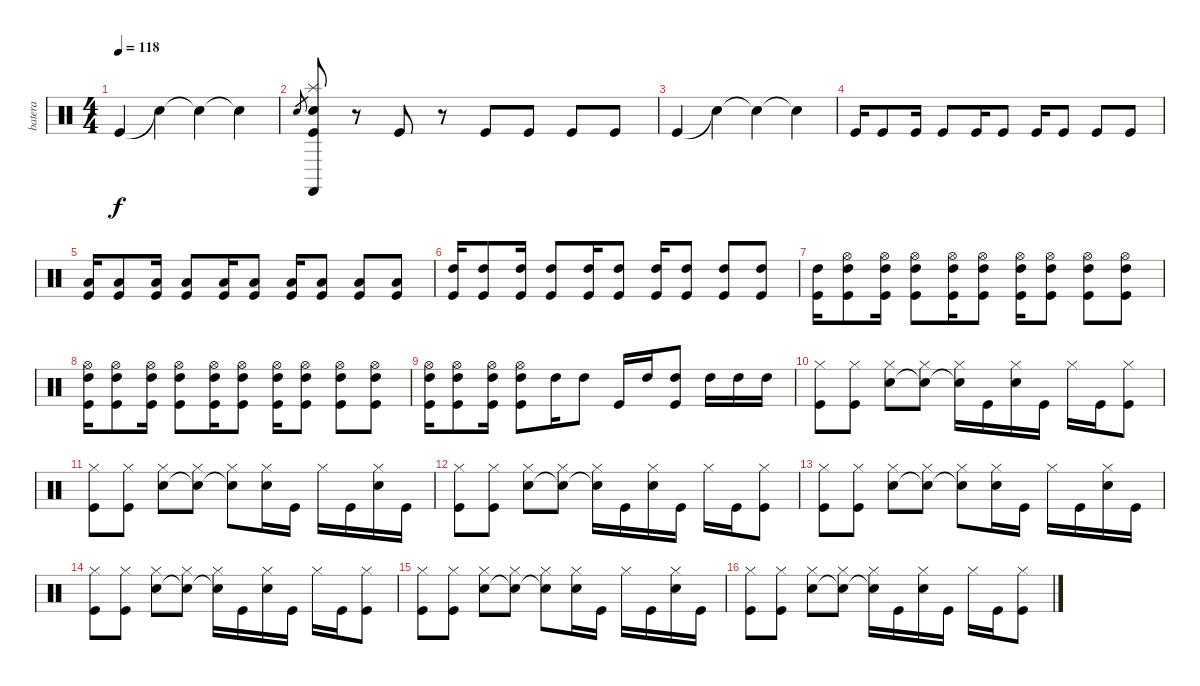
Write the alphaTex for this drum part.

\track ("batera" "batera") {instrument percussion}
\staff {score}
\articulation defaults
\ts (4 4)
\tempo 118
\clef neutral
\ks c "Kick (hit)".4{dy f} "Snare (hit)"{t}.4 "Snare (hit)"{t}.4 "Snare (hit)"{t}.4
|
"Snare (hit) 2".8{gr} ("Splash (hit)" "Castanets (hit)" "Snare (hit) 2" "Kick (hit)").8 r.8 "Kick (hit)".8 r.8 "Kick (hit)".8 "Kick (hit)".8 "Kick (hit)".8 "Kick (hit)".8 |
"Kick (hit)".4 "Snare (hit)"{t}.4 "Snare (hit)"{t}.4 "Snare (hit)"{t}.4 |
"Kick (hit)".16 "Kick (hit)".8 "Kick (hit)".16 "Kick (hit)".8 "Kick (hit)".16 "Kick (hit)".8 "Kick (hit)".16 "Kick (hit)".8 "Kick (hit)".8 "Kick (hit)".8 |
("Low Tom (hit)" "Kick (hit)").16 ("Low Tom (hit)" "Kick (hit)").8 ("Low Tom (hit)" "Kick (hit)").16 ("Low Tom (hit)" "Kick (hit)").8 ("Low Tom (hit)" "Kick (hit)").16 ("Low Tom (hit)" "Kick (hit)").8 ("Low Tom (hit)" "Kick (hit)").16 ("Low Tom (hit)" "Kick (hit)").8 ("Low Tom (hit)" "Kick (hit)").8 ("Low Tom (hit)" "Kick (hit)").8 |
("High Tom (hit)" "Kick (hit)").16 ("High Tom (hit)" "Kick (hit)").8 ("High Tom (hit)" "Kick (hit)").16 ("High Tom (hit)" "Kick (hit)").8 ("High Tom (hit)" "Kick (hit)").16 ("High Tom (hit)" "Kick (hit)").8 ("High Tom (hit)" "Kick (hit)").16 ("High Tom (hit)" "Kick (hit)").8 ("High Tom (hit)" "Kick (hit)").8 ("High Tom (hit)" "Kick (hit)").8 |
("High Tom (hit)" "Kick (hit)").16 ("Hi-Hat (open)" "High Tom (hit)" "Kick (hit)").8 ("Hi-Hat (open)" "High Tom (hit)" "Kick (hit)").16 ("Hi-Hat (open)" "High Tom (hit)" "Kick (hit)").8 ("Hi-Hat (open)" "High Tom (hit)" "Kick (hit)").16 ("Hi-Hat (open)" "High Tom (hit)" "Kick (hit)").8 ("Hi-Hat (open)" "High Tom (hit)" "Kick (hit)").16 ("Hi-Hat (open)" "High Tom (hit)" "Kick (hit)").8 ("Hi-Hat (open)" "High Tom (hit)" "Kick (hit)").8 ("Hi-Hat (open)" "High Tom (hit)" "Kick (hit)").8 |
("Hi-Hat (open)" "High Tom (hit)" "Kick (hit)").16 ("Hi-Hat (open)" "High Tom (hit)" "Kick (hit)").8 ("Hi-Hat (open)" "High Tom (hit)" "Kick (hit)").16 ("Hi-Hat (open)" "High Tom (hit)" "Kick (hit)").8 ("Hi-Hat (open)" "High Tom (hit)" "Kick (hit)").16 ("Hi-Hat (open)" "High Tom (hit)" "Kick (hit)").8 ("Hi-Hat (open)" "High Tom (hit)" "Kick (hit)").16 ("Hi-Hat (open)" "High Tom (hit)" "Kick (hit)").8 ("Hi-Hat (open)" "High Tom (hit)" "Kick (hit)").8 ("Hi-Hat (open)" "High Tom (hit)" "Kick (hit)").8 |
("Hi-Hat (open)" "High Tom (hit)" "Kick (hit)").16 ("Hi-Hat (open)" "High Tom (hit)" "Kick (hit)").8 ("Hi-Hat (open)" "High Tom (hit)" "Kick (hit)").16 ("Hi-Hat (open)" "High Tom (hit)" "Kick (hit)").8 "High Tom (hit)".16 "High Tom (hit)".8 "Kick (hit)".16 "High Tom (hit)".16 ("High Tom (hit)" "Kick (hit)").8 "High Tom (hit)".16 "High Tom (hit)".16 "High Tom (hit)".16 |
("Hi-Hat (closed)" "Kick (hit)").8 ("Hi-Hat (closed)" "Kick (hit)").8 ("Hi-Hat (closed)" "Snare (hit) 2").8 ("Hi-Hat (closed)" "Snare (hit)"{t}).8 ("Hi-Hat (closed)" "Snare (hit)"{t}).16 "Kick (hit)".16 ("Hi-Hat (closed)" "Snare (hit) 2").16 "Kick (hit)".16 "Hi-Hat (closed)".16 "Kick (hit)".16 ("Hi-Hat (closed)" "Kick (hit)").8 |
("Hi-Hat (closed)" "Kick (hit)").8 ("Hi-Hat (closed)" "Kick (hit)").8 ("Hi-Hat (closed)" "Snare (hit) 2").8 ("Hi-Hat (closed)" "Snare (hit)"{t}).8 ("Hi-Hat (closed)" "Snare (hit)"{t}).8 ("Hi-Hat (closed)" "Snare (hit) 2").16 "Kick (hit)".16 "Hi-Hat (closed)".16 "Kick (hit)".16 ("Hi-Hat (closed)" "Snare (hit) 2").16 "Kick (hit)".16 |
("Hi-Hat (closed)" "Kick (hit)").8 ("Hi-Hat (closed)" "Kick (hit)").8 ("Hi-Hat (closed)" "Snare (hit) 2").8 ("Hi-Hat (closed)" "Snare (hit)"{t}).8 ("Hi-Hat (closed)" "Snare (hit)"{t}).16 "Kick (hit)".16 ("Hi-Hat (closed)" "Snare (hit) 2").16 "Kick (hit)".16 "Hi-Hat (closed)".16 "Kick (hit)".16 ("Hi-Hat (closed)" "Kick (hit)").8 |
("Hi-Hat (closed)" "Kick (hit)").8 ("Hi-Hat (closed)" "Kick (hit)").8 ("Hi-Hat (closed)" "Snare (hit) 2").8 ("Hi-Hat (closed)" "Snare (hit)"{t}).8 ("Hi-Hat (closed)" "Snare (hit)"{t}).8 ("Hi-Hat (closed)" "Snare (hit) 2").16 "Kick (hit)".16 "Hi-Hat (closed)".16 "Kick (hit)".16 ("Hi-Hat (closed)" "Snare (hit) 2").16 "Kick (hit)".16 |
("Hi-Hat (closed)" "Kick (hit)").8 ("Hi-Hat (closed)" "Kick (hit)").8 ("Hi-Hat (closed)" "Snare (hit) 2").8 ("Hi-Hat (closed)" "Snare (hit)"{t}).8 ("Hi-Hat (closed)" "Snare (hit)"{t}).16 "Kick (hit)".16 ("Hi-Hat (closed)" "Snare (hit) 2").16 "Kick (hit)".16 "Hi-Hat (closed)".16 "Kick (hit)".16 ("Hi-Hat (closed)" "Kick (hit)").8 |
("Hi-Hat (closed)" "Kick (hit)").8 ("Hi-Hat (closed)" "Kick (hit)").8 ("Hi-Hat (closed)" "Snare (hit) 2").8 ("Hi-Hat (closed)" "Snare (hit)"{t}).8 ("Hi-Hat (closed)" "Snare (hit)"{t}).8 ("Hi-Hat (closed)" "Snare (hit) 2").16 "Kick (hit)".16 "Hi-Hat (closed)".16 "Kick (hit)".16 ("Hi-Hat (closed)" "Snare (hit) 2").16 "Kick (hit)".16 |
("Hi-Hat (closed)" "Kick (hit)").8 ("Hi-Hat (closed)" "Kick (hit)").8 ("Hi-Hat (closed)" "Snare (hit) 2").8 ("Hi-Hat (closed)" "Snare (hit)"{t}).8 ("Hi-Hat (closed)" "Snare (hit)"{t}).16 "Kick (hit)".16 ("Hi-Hat (closed)" "Snare (hit) 2").16 "Kick (hit)".16 "Hi-Hat (closed)".16 "Kick (hit)".16 ("Hi-Hat (closed)" "Kick (hit)").8
